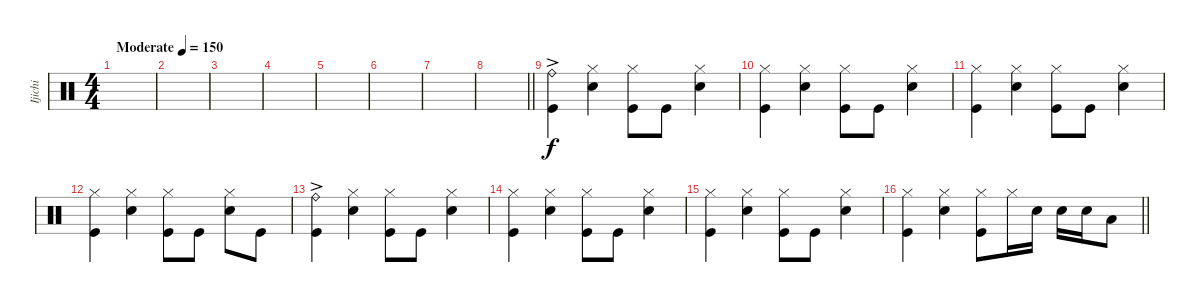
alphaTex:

\track ("Ijichi" "Ijichi") {instrument percussion}
\staff {score}
\articulation defaults
\ts (4 4)
\tempo (150 "Moderate")
\clef neutral
\ks c
|
|
|
|
|
|
|
\barLineRight lightlight
|
("Ride (bell)"{ac} "Kick (hit)").4 ("Hi-Hat (closed)" "Snare (hit) 2").4 ("Hi-Hat (closed)" "Kick (hit)").8 "Kick (hit)".8 ("Hi-Hat (closed)" "Snare (hit) 2").4 |
("Hi-Hat (closed)" "Kick (hit)").4 ("Hi-Hat (closed)" "Snare (hit) 2").4 ("Hi-Hat (closed)" "Kick (hit)").8 "Kick (hit)".8 ("Hi-Hat (closed)" "Snare (hit) 2").4 |
("Hi-Hat (closed)" "Kick (hit)").4 ("Hi-Hat (closed)" "Snare (hit) 2").4 ("Hi-Hat (closed)" "Kick (hit)").8 "Kick (hit)".8 ("Hi-Hat (closed)" "Snare (hit) 2").4 |
("Hi-Hat (closed)" "Kick (hit)").4 ("Hi-Hat (closed)" "Snare (hit) 2").4 ("Hi-Hat (closed)" "Kick (hit)").8 "Kick (hit)".8 ("Hi-Hat (closed)" "Snare (hit) 2").8 "Kick (hit)".8 |
("Ride (bell)"{ac} "Kick (hit)").4 ("Hi-Hat (closed)" "Snare (hit) 2").4 ("Hi-Hat (closed)" "Kick (hit)").8 "Kick (hit)".8 ("Hi-Hat (closed)" "Snare (hit) 2").4 |
("Hi-Hat (closed)" "Kick (hit)").4 ("Hi-Hat (closed)" "Snare (hit) 2").4 ("Hi-Hat (closed)" "Kick (hit)").8 "Kick (hit)".8 ("Hi-Hat (closed)" "Snare (hit) 2").4 |
("Hi-Hat (closed)" "Kick (hit)").4 ("Hi-Hat (closed)" "Snare (hit) 2").4 ("Hi-Hat (closed)" "Kick (hit)").8 "Kick (hit)".8 ("Hi-Hat (closed)" "Snare (hit) 2").4 |
\barLineRight lightlight
("Hi-Hat (closed)" "Kick (hit)").4 ("Hi-Hat (closed)" "Snare (hit) 2").4 ("Hi-Hat (closed)" "Kick (hit)").8 "Hi-Hat (closed)".16 "Snare (hit) 2".16 "Snare (hit) 2".16 "Snare (hit) 2".16 "Low Tom (hit)".8
